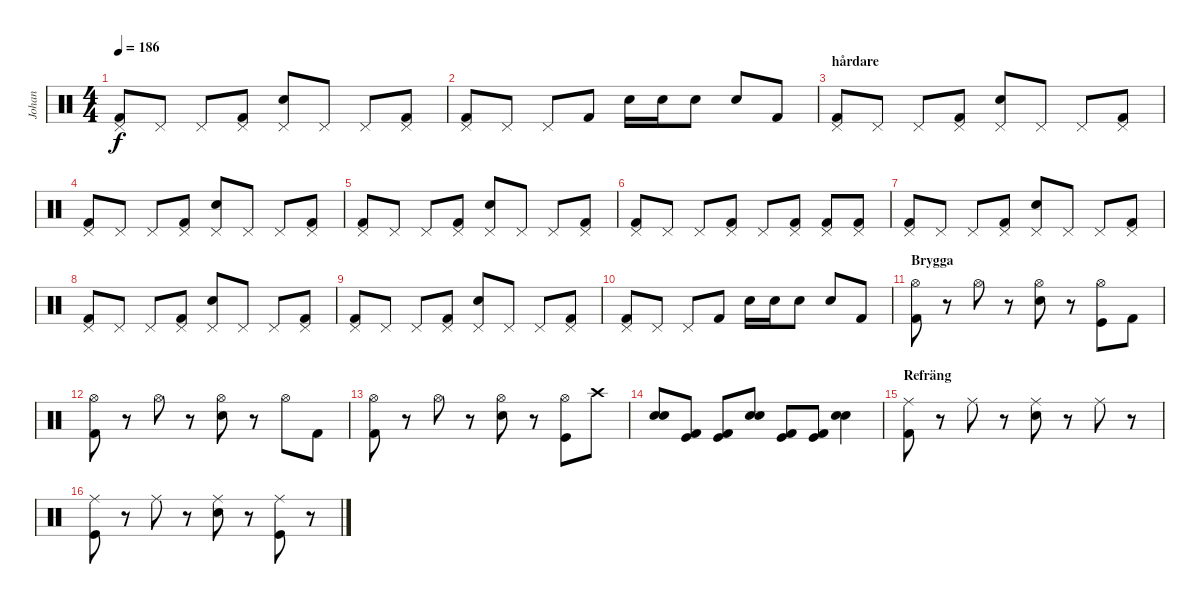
\track ("Johan" "Johan") {instrument percussion}
\staff {score}
\articulation defaults
\ts (4 4)
\tempo 186
\clef neutral
\ks c
("Pedal Hi-Hat (hit)" "Kick (hit) 2").8{dy f} "Pedal Hi-Hat (hit)".8 "Pedal Hi-Hat (hit)".8 ("Pedal Hi-Hat (hit)" "Kick (hit) 2").8 ("Pedal Hi-Hat (hit)" "Snare (hit) 2").8 "Pedal Hi-Hat (hit)".8 "Pedal Hi-Hat (hit)".8 ("Pedal Hi-Hat (hit)" "Kick (hit) 2").8 |
("Pedal Hi-Hat (hit)" "Kick (hit) 2").8 "Pedal Hi-Hat (hit)".8 "Pedal Hi-Hat (hit)".8 "Kick (hit) 2".8 "Snare (hit) 2".16 "Snare (hit) 2".16 "Snare (hit) 2".8 "Snare (hit) 2".8 "Kick (hit) 2".8 |
\section ("" "hårdare")
("Pedal Hi-Hat (hit)" "Kick (hit) 2").8 "Pedal Hi-Hat (hit)".8 "Pedal Hi-Hat (hit)".8 ("Pedal Hi-Hat (hit)" "Kick (hit) 2").8 ("Pedal Hi-Hat (hit)" "Snare (hit) 2").8 "Pedal Hi-Hat (hit)".8 "Pedal Hi-Hat (hit)".8 ("Pedal Hi-Hat (hit)" "Kick (hit) 2").8 |
("Pedal Hi-Hat (hit)" "Kick (hit) 2").8 "Pedal Hi-Hat (hit)".8 "Pedal Hi-Hat (hit)".8 ("Pedal Hi-Hat (hit)" "Kick (hit) 2").8 ("Pedal Hi-Hat (hit)" "Snare (hit) 2").8 "Pedal Hi-Hat (hit)".8 "Pedal Hi-Hat (hit)".8 ("Pedal Hi-Hat (hit)" "Kick (hit) 2").8 |
("Pedal Hi-Hat (hit)" "Kick (hit) 2").8 "Pedal Hi-Hat (hit)".8 "Pedal Hi-Hat (hit)".8 ("Pedal Hi-Hat (hit)" "Kick (hit) 2").8 ("Pedal Hi-Hat (hit)" "Snare (hit) 2").8 "Pedal Hi-Hat (hit)".8 "Pedal Hi-Hat (hit)".8 ("Pedal Hi-Hat (hit)" "Kick (hit) 2").8 |
("Pedal Hi-Hat (hit)" "Kick (hit) 2").8 "Pedal Hi-Hat (hit)".8 "Pedal Hi-Hat (hit)".8 ("Pedal Hi-Hat (hit)" "Kick (hit) 2").8 "Pedal Hi-Hat (hit)".8 ("Pedal Hi-Hat (hit)" "Kick (hit) 2").8 ("Pedal Hi-Hat (hit)" "Kick (hit) 2").8 ("Pedal Hi-Hat (hit)" "Kick (hit) 2").8 |
("Pedal Hi-Hat (hit)" "Kick (hit) 2").8 "Pedal Hi-Hat (hit)".8 "Pedal Hi-Hat (hit)".8 ("Pedal Hi-Hat (hit)" "Kick (hit) 2").8 ("Pedal Hi-Hat (hit)" "Snare (hit) 2").8 "Pedal Hi-Hat (hit)".8 "Pedal Hi-Hat (hit)".8 ("Pedal Hi-Hat (hit)" "Kick (hit) 2").8 |
("Pedal Hi-Hat (hit)" "Kick (hit) 2").8 "Pedal Hi-Hat (hit)".8 "Pedal Hi-Hat (hit)".8 ("Pedal Hi-Hat (hit)" "Kick (hit) 2").8 ("Pedal Hi-Hat (hit)" "Snare (hit) 2").8 "Pedal Hi-Hat (hit)".8 "Pedal Hi-Hat (hit)".8 ("Pedal Hi-Hat (hit)" "Kick (hit) 2").8 |
("Pedal Hi-Hat (hit)" "Kick (hit) 2").8 "Pedal Hi-Hat (hit)".8 "Pedal Hi-Hat (hit)".8 ("Pedal Hi-Hat (hit)" "Kick (hit) 2").8 ("Pedal Hi-Hat (hit)" "Snare (hit) 2").8 "Pedal Hi-Hat (hit)".8 "Pedal Hi-Hat (hit)".8 ("Pedal Hi-Hat (hit)" "Kick (hit) 2").8 |
("Pedal Hi-Hat (hit)" "Kick (hit) 2").8 "Pedal Hi-Hat (hit)".8 "Pedal Hi-Hat (hit)".8 "Kick (hit) 2".8 "Snare (hit) 2".16 "Snare (hit) 2".16 "Snare (hit) 2".8 "Snare (hit) 2".8 "Kick (hit) 2".8 |
\section ("" "Brygga")
("Hi-Hat (open)" "Kick (hit) 2").8 r.8 "Hi-Hat (open)".8 r.8 ("Hi-Hat (open)" "Snare (hit) 2").8 r.8 ("Hi-Hat (open)" "Kick (hit)").8 "Kick (hit) 2".8 |
("Hi-Hat (open)" "Kick (hit) 2").8 r.8 "Hi-Hat (open)".8 r.8 ("Hi-Hat (open)" "Snare (hit) 2").8 r.8 "Hi-Hat (open)".8 "Kick (hit) 2".8 |
("Hi-Hat (open)" "Kick (hit) 2").8 r.8 "Hi-Hat (open)".8 r.8 ("Hi-Hat (open)" "Snare (hit) 2").8 r.8 ("Hi-Hat (open)" "Kick (hit)").8 "Crash high (hit)".8 |
("Snare (hit) 2" "Snare (hit) 2").8 ("Kick (hit)" "Kick (hit) 2").8 ("Kick (hit)" "Kick (hit) 2").8 ("Snare (hit) 2" "Snare (hit) 2").8 ("Kick (hit)" "Kick (hit) 2").8 ("Kick (hit)" "Kick (hit) 2").8 ("Snare (hit) 2" "Snare (hit) 2").4 |
\section ("" "Refräng")
("Ride (middle)" "Kick (hit) 2").8 r.8 "Ride (middle)".8 r.8 ("Ride (middle)" "Snare (hit) 2").8 r.8 "Ride (middle)".8 r.8 |
("Ride (middle)" "Kick (hit)").8 r.8 "Ride (middle)".8 r.8 ("Ride (middle)" "Snare (hit) 2").8 r.8 ("Ride (middle)" "Kick (hit)").8 r.8
